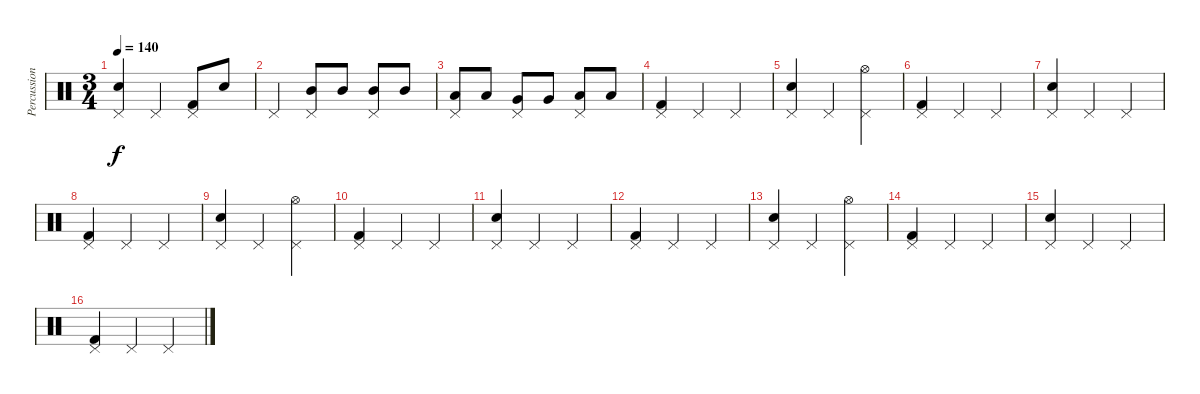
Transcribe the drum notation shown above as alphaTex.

\track ("Percussion" "Percussion") {instrument percussion}
\staff {score}
\articulation defaults
\ts (3 4)
\tempo 140
\clef neutral
\ks c
("Pedal Hi-Hat (hit)" "Snare (hit) 2").4{dy f} "Pedal Hi-Hat (hit)".4 ("Pedal Hi-Hat (hit)" "Kick (hit) 2").8 "Snare (hit) 2".8 |
"Pedal Hi-Hat (hit)".4 ("Pedal Hi-Hat (hit)" "Mid Tom (hit)").8 "Mid Tom (hit)".8 ("Pedal Hi-Hat (hit)" "Mid Tom (hit)").8 "Mid Tom (hit)".8 |
("Pedal Hi-Hat (hit)" "Low Tom (hit)").8 "Low Tom (hit)".8 ("Pedal Hi-Hat (hit)" "Very Low Tom (hit)").8 "Very Low Tom (hit)".8 ("Pedal Hi-Hat (hit)" "Low Floor Tom (hit)").8 "Low Floor Tom (hit)".8 |
("Pedal Hi-Hat (hit)" "Kick (hit) 2").4 "Pedal Hi-Hat (hit)".4 "Pedal Hi-Hat (hit)".4 |
("Pedal Hi-Hat (hit)" "Snare (hit) 2").4 "Pedal Hi-Hat (hit)".4 ("Pedal Hi-Hat (hit)" "Hi-Hat (open)").4 |
("Pedal Hi-Hat (hit)" "Kick (hit) 2").4 "Pedal Hi-Hat (hit)".4 "Pedal Hi-Hat (hit)".4 |
("Pedal Hi-Hat (hit)" "Snare (hit) 2").4 "Pedal Hi-Hat (hit)".4 "Pedal Hi-Hat (hit)".4 |
("Pedal Hi-Hat (hit)" "Kick (hit) 2").4 "Pedal Hi-Hat (hit)".4 "Pedal Hi-Hat (hit)".4 |
("Pedal Hi-Hat (hit)" "Snare (hit) 2").4 "Pedal Hi-Hat (hit)".4 ("Pedal Hi-Hat (hit)" "Hi-Hat (open)").4 |
("Pedal Hi-Hat (hit)" "Kick (hit) 2").4 "Pedal Hi-Hat (hit)".4 "Pedal Hi-Hat (hit)".4 |
("Pedal Hi-Hat (hit)" "Snare (hit) 2").4 "Pedal Hi-Hat (hit)".4 "Pedal Hi-Hat (hit)".4 |
("Pedal Hi-Hat (hit)" "Kick (hit) 2").4 "Pedal Hi-Hat (hit)".4 "Pedal Hi-Hat (hit)".4 |
("Pedal Hi-Hat (hit)" "Snare (hit) 2").4 "Pedal Hi-Hat (hit)".4 ("Pedal Hi-Hat (hit)" "Hi-Hat (open)").4 |
("Pedal Hi-Hat (hit)" "Kick (hit) 2").4 "Pedal Hi-Hat (hit)".4 "Pedal Hi-Hat (hit)".4 |
("Pedal Hi-Hat (hit)" "Snare (hit) 2").4 "Pedal Hi-Hat (hit)".4 "Pedal Hi-Hat (hit)".4 |
("Pedal Hi-Hat (hit)" "Kick (hit) 2").4 "Pedal Hi-Hat (hit)".4 "Pedal Hi-Hat (hit)".4
